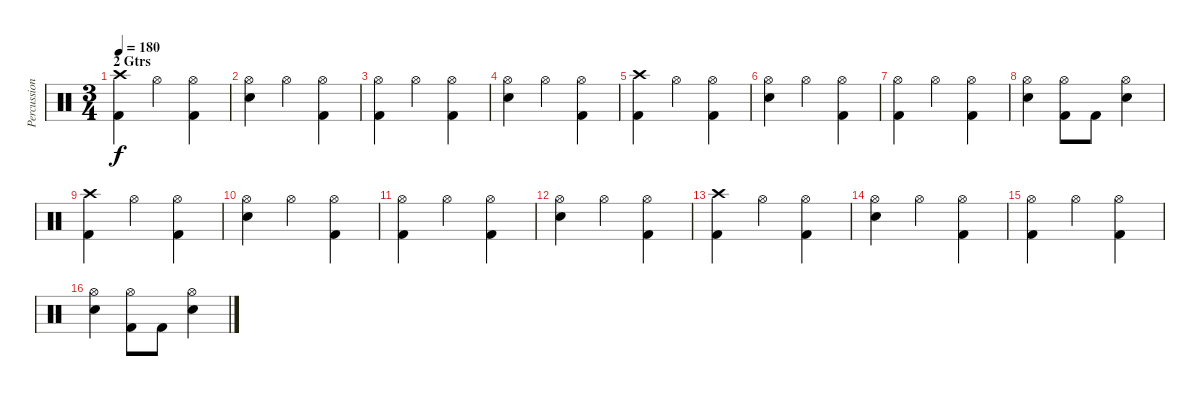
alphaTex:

\track ("Percussions" "Percussion") {instrument percussion}
\staff {score}
\articulation defaults
\ts (3 4)
\section ("" "2 Gtrs")
\tempo 180
\clef neutral
\ks c
("Crash high (hit)" "Kick (hit) 2").4{dy f} "Hi-Hat (open)".4 ("Hi-Hat (open)" "Kick (hit) 2").4 |
("Hi-Hat (open)" "Snare (hit) 2").4 "Hi-Hat (open)".4 ("Hi-Hat (open)" "Kick (hit) 2").4 |
("Hi-Hat (open)" "Kick (hit) 2").4 "Hi-Hat (open)".4 ("Hi-Hat (open)" "Kick (hit) 2").4 |
("Hi-Hat (open)" "Snare (hit) 2").4 "Hi-Hat (open)".4 ("Hi-Hat (open)" "Kick (hit) 2").4 |
("Crash high (hit)" "Kick (hit) 2").4 "Hi-Hat (open)".4 ("Hi-Hat (open)" "Kick (hit) 2").4 |
("Hi-Hat (open)" "Snare (hit) 2").4 "Hi-Hat (open)".4 ("Hi-Hat (open)" "Kick (hit) 2").4 |
("Hi-Hat (open)" "Kick (hit) 2").4 "Hi-Hat (open)".4 ("Hi-Hat (open)" "Kick (hit) 2").4 |
("Hi-Hat (open)" "Snare (hit) 2").4 ("Hi-Hat (open)" "Kick (hit) 2").8 "Kick (hit) 2".8 ("Hi-Hat (open)" "Snare (hit) 2").4 |
("Crash high (hit)" "Kick (hit) 2").4 "Hi-Hat (open)".4 ("Hi-Hat (open)" "Kick (hit) 2").4 |
("Hi-Hat (open)" "Snare (hit) 2").4 "Hi-Hat (open)".4 ("Hi-Hat (open)" "Kick (hit) 2").4 |
("Hi-Hat (open)" "Kick (hit) 2").4 "Hi-Hat (open)".4 ("Hi-Hat (open)" "Kick (hit) 2").4 |
("Hi-Hat (open)" "Snare (hit) 2").4 "Hi-Hat (open)".4 ("Hi-Hat (open)" "Kick (hit) 2").4 |
("Crash high (hit)" "Kick (hit) 2").4 "Hi-Hat (open)".4 ("Hi-Hat (open)" "Kick (hit) 2").4 |
("Hi-Hat (open)" "Snare (hit) 2").4 "Hi-Hat (open)".4 ("Hi-Hat (open)" "Kick (hit) 2").4 |
("Hi-Hat (open)" "Kick (hit) 2").4 "Hi-Hat (open)".4 ("Hi-Hat (open)" "Kick (hit) 2").4 |
("Hi-Hat (open)" "Snare (hit) 2").4 ("Hi-Hat (open)" "Kick (hit) 2").8 "Kick (hit) 2".8 ("Hi-Hat (open)" "Snare (hit) 2").4
